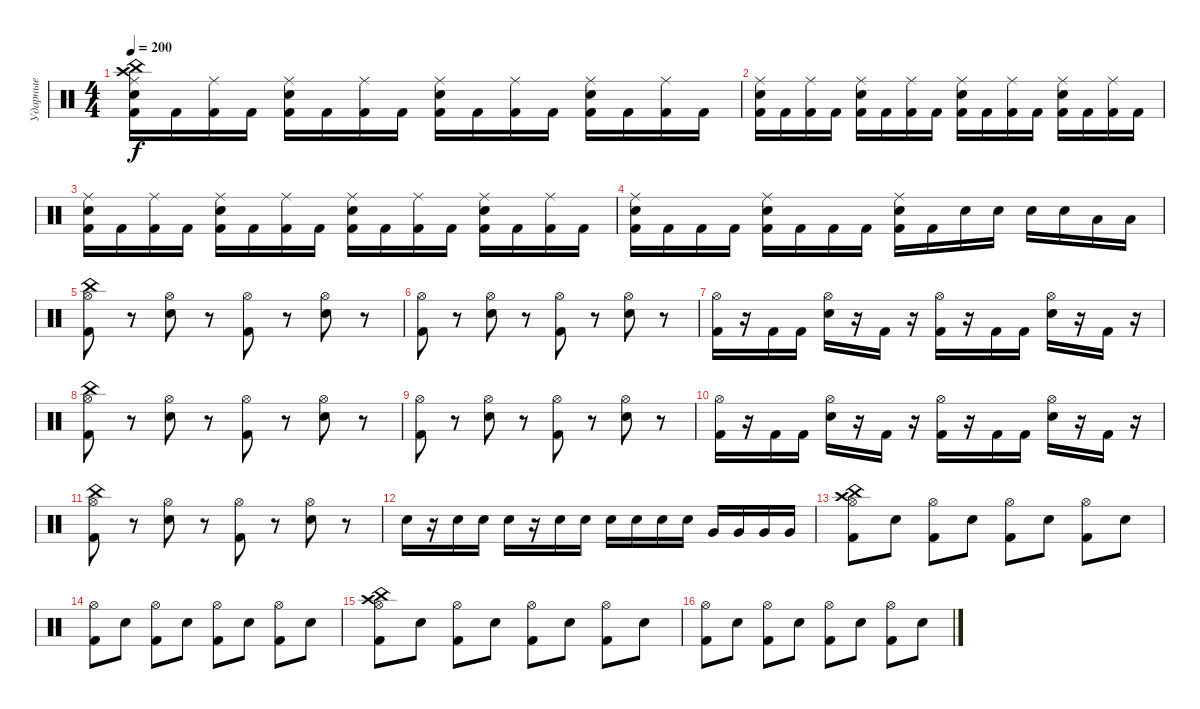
\track ("Ударные" "Ударные") {instrument percussion}
\staff {score}
\articulation defaults
\ts (4 4)
\tempo 200
\clef neutral
\ks c
("Kick (hit) 2" "Electric Snare (hit)" "Ride (middle)" "China (hit)" "Crash high (hit)").16{dy f} "Kick (hit) 2".16 ("Kick (hit) 2" "Ride (middle)").16 "Kick (hit) 2".16 ("Kick (hit) 2" "Electric Snare (hit)" "Ride (middle)").16 "Kick (hit) 2".16 ("Kick (hit) 2" "Ride (middle)").16 "Kick (hit) 2".16 ("Kick (hit) 2" "Electric Snare (hit)" "Ride (middle)").16 "Kick (hit) 2".16 ("Kick (hit) 2" "Ride (middle)").16 "Kick (hit) 2".16 ("Kick (hit) 2" "Electric Snare (hit)" "Ride (middle)").16 "Kick (hit) 2".16 ("Kick (hit) 2" "Ride (middle)").16 "Kick (hit) 2".16 |
("Kick (hit) 2" "Electric Snare (hit)" "Ride (middle)").16 "Kick (hit) 2".16 ("Kick (hit) 2" "Ride (middle)").16 "Kick (hit) 2".16 ("Kick (hit) 2" "Electric Snare (hit)" "Ride (middle)").16 "Kick (hit) 2".16 ("Kick (hit) 2" "Ride (middle)").16 "Kick (hit) 2".16 ("Kick (hit) 2" "Electric Snare (hit)" "Ride (middle)").16 "Kick (hit) 2".16 ("Kick (hit) 2" "Ride (middle)").16 "Kick (hit) 2".16 ("Kick (hit) 2" "Electric Snare (hit)" "Ride (middle)").16 "Kick (hit) 2".16 ("Kick (hit) 2" "Ride (middle)").16 "Kick (hit) 2".16 |
("Kick (hit) 2" "Electric Snare (hit)" "Ride (middle)").16 "Kick (hit) 2".16 ("Kick (hit) 2" "Ride (middle)").16 "Kick (hit) 2".16 ("Kick (hit) 2" "Electric Snare (hit)" "Ride (middle)").16 "Kick (hit) 2".16 ("Kick (hit) 2" "Ride (middle)").16 "Kick (hit) 2".16 ("Kick (hit) 2" "Electric Snare (hit)" "Ride (middle)").16 "Kick (hit) 2".16 ("Kick (hit) 2" "Ride (middle)").16 "Kick (hit) 2".16 ("Kick (hit) 2" "Electric Snare (hit)" "Ride (middle)").16 "Kick (hit) 2".16 ("Kick (hit) 2" "Ride (middle)").16 "Kick (hit) 2".16 |
("Kick (hit) 2" "Electric Snare (hit)" "Ride (middle)").16 "Kick (hit) 2".16 "Kick (hit) 2".16 "Kick (hit) 2".16 ("Kick (hit) 2" "Electric Snare (hit)" "Ride (middle)").16 "Kick (hit) 2".16 "Kick (hit) 2".16 "Kick (hit) 2".16 ("Kick (hit) 2" "Electric Snare (hit)" "Ride (middle)").16 "Kick (hit) 2".16 "Electric Snare (hit)".16 "Electric Snare (hit)".16 "Snare (hit) 2".16 "Snare (hit) 2".16 "Low Floor Tom (hit)".16 "Low Floor Tom (hit)".16 |
("Kick (hit) 2" "Hi-Hat (open)" "China (hit)").8 r.8 ("Electric Snare (hit)" "Hi-Hat (open)").8 r.8 ("Kick (hit) 2" "Hi-Hat (open)").8 r.8 ("Electric Snare (hit)" "Hi-Hat (open)").8 r.8 |
("Kick (hit) 2" "Hi-Hat (open)").8 r.8 ("Electric Snare (hit)" "Hi-Hat (open)").8 r.8 ("Kick (hit) 2" "Hi-Hat (open)").8 r.8 ("Electric Snare (hit)" "Hi-Hat (open)").8 r.8 |
("Kick (hit) 2" "Hi-Hat (open)").16 r.16 "Kick (hit) 2".16 "Kick (hit) 2".16 ("Electric Snare (hit)" "Hi-Hat (open)").16 r.16 "Kick (hit) 2".16 r.16 ("Kick (hit) 2" "Hi-Hat (open)").16 r.16 "Kick (hit) 2".16 "Kick (hit) 2".16 ("Electric Snare (hit)" "Hi-Hat (open)").16 r.16 "Kick (hit) 2".16 r.16 |
("Kick (hit) 2" "Hi-Hat (open)" "China (hit)").8 r.8 ("Electric Snare (hit)" "Hi-Hat (open)").8 r.8 ("Kick (hit) 2" "Hi-Hat (open)").8 r.8 ("Electric Snare (hit)" "Hi-Hat (open)").8 r.8 |
("Kick (hit) 2" "Hi-Hat (open)").8 r.8 ("Electric Snare (hit)" "Hi-Hat (open)").8 r.8 ("Kick (hit) 2" "Hi-Hat (open)").8 r.8 ("Electric Snare (hit)" "Hi-Hat (open)").8 r.8 |
("Kick (hit) 2" "Hi-Hat (open)").16 r.16 "Kick (hit) 2".16 "Kick (hit) 2".16 ("Electric Snare (hit)" "Hi-Hat (open)").16 r.16 "Kick (hit) 2".16 r.16 ("Kick (hit) 2" "Hi-Hat (open)").16 r.16 "Kick (hit) 2".16 "Kick (hit) 2".16 ("Electric Snare (hit)" "Hi-Hat (open)").16 r.16 "Kick (hit) 2".16 r.16 |
("Kick (hit) 2" "Hi-Hat (open)" "China (hit)").8 r.8 ("Electric Snare (hit)" "Hi-Hat (open)").8 r.8 ("Kick (hit) 2" "Hi-Hat (open)").8 r.8 ("Electric Snare (hit)" "Hi-Hat (open)").8 r.8 |
"Electric Snare (hit)".16 r.16 "Electric Snare (hit)".16 "Electric Snare (hit)".16 "Electric Snare (hit)".16 r.16 "Electric Snare (hit)".16 "Electric Snare (hit)".16 "Snare (hit) 2".16 "Snare (hit) 2".16 "Snare (hit) 2".16 "Snare (hit) 2".16 "Very Low Tom (hit)".16 "Very Low Tom (hit)".16 "Very Low Tom (hit)".16 "Very Low Tom (hit)".16 |
("Kick (hit) 2" "Hi-Hat (open)" "Crash high (hit)" "China (hit)").8 "Electric Snare (hit)".8 ("Kick (hit) 2" "Hi-Hat (open)").8 "Electric Snare (hit)".8 ("Kick (hit) 2" "Hi-Hat (open)").8 "Electric Snare (hit)".8 ("Kick (hit) 2" "Hi-Hat (open)").8 "Electric Snare (hit)".8 |
("Kick (hit) 2" "Hi-Hat (open)").8 "Electric Snare (hit)".8 ("Kick (hit) 2" "Hi-Hat (open)").8 "Electric Snare (hit)".8 ("Kick (hit) 2" "Hi-Hat (open)").8 "Electric Snare (hit)".8 ("Kick (hit) 2" "Hi-Hat (open)").8 "Electric Snare (hit)".8 |
("Kick (hit) 2" "Hi-Hat (open)" "Crash high (hit)" "China (hit)").8 "Electric Snare (hit)".8 ("Kick (hit) 2" "Hi-Hat (open)").8 "Electric Snare (hit)".8 ("Kick (hit) 2" "Hi-Hat (open)").8 "Electric Snare (hit)".8 ("Kick (hit) 2" "Hi-Hat (open)").8 "Electric Snare (hit)".8 |
("Kick (hit) 2" "Hi-Hat (open)").8 "Electric Snare (hit)".8 ("Kick (hit) 2" "Hi-Hat (open)").8 "Electric Snare (hit)".8 ("Kick (hit) 2" "Hi-Hat (open)").8 "Electric Snare (hit)".8 ("Kick (hit) 2" "Hi-Hat (open)").8 "Electric Snare (hit)".8
